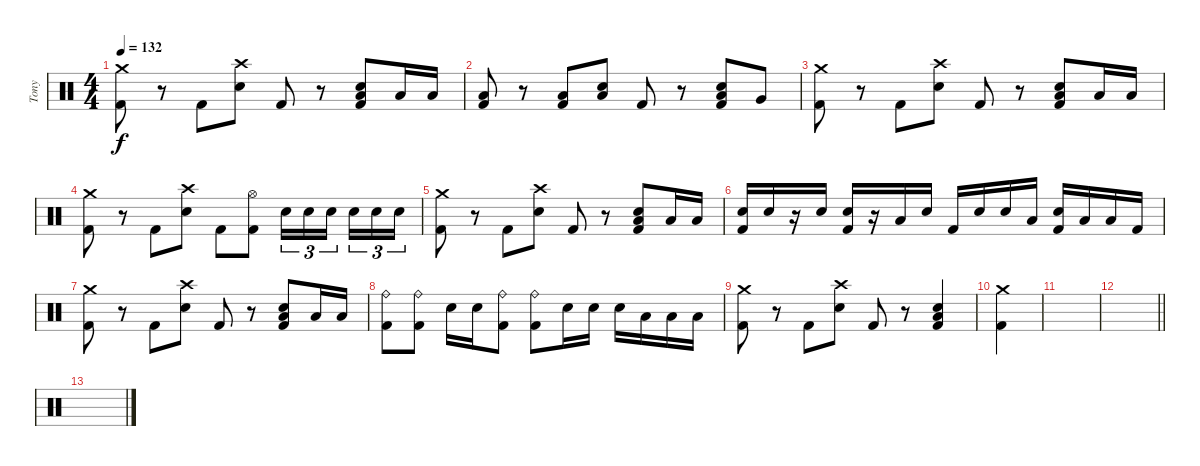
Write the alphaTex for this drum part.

\track ("Tony" "Tony") {instrument percussion}
\staff {score}
\articulation defaults
\ts (4 4)
\tempo 132
\clef neutral
\ks c
("Kick (hit) 2" "Crash medium (hit)").8{dy f} r.8 "Kick (hit) 2".8 ("Electric Snare (hit)" "Crash high (hit)").8 "Kick (hit) 2".8 r.8 ("Kick (hit) 2" "Electric Snare (hit)" "Low Floor Tom (hit)").8 "Low Tom (hit)".16 "Low Tom (hit)".16 |
("Kick (hit) 2" "Low Floor Tom (hit)").8 r.8 ("Kick (hit) 2" "Low Tom (hit)").8 ("Low Floor Tom (hit)" "Electric Snare (hit)").8 "Kick (hit) 2".8 r.8 ("Kick (hit) 2" "Low Floor Tom (hit)" "Electric Snare (hit)").8 "Very Low Tom (hit)".8 |
("Kick (hit) 2" "Crash medium (hit)").8 r.8 "Kick (hit) 2".8 ("Electric Snare (hit)" "Crash high (hit)").8 "Kick (hit) 2".8 r.8 ("Kick (hit) 2" "Electric Snare (hit)" "Low Floor Tom (hit)").8 "Low Tom (hit)".16 "Low Tom (hit)".16 |
("Kick (hit) 2" "Crash medium (hit)").8 r.8 "Kick (hit) 2".8 ("Electric Snare (hit)" "Crash high (hit)").8 "Kick (hit) 2".8 ("Hi-Hat (open)" "Kick (hit) 2").8 "Electric Snare (hit)".16{tu (3 2)} "Electric Snare (hit)".16{tu (3 2)} "Electric Snare (hit)".16{tu (3 2) beam splitsecondary} "Electric Snare (hit)".16{tu (3 2)} "Electric Snare (hit)".16{tu (3 2)} "Electric Snare (hit)".16{tu (3 2)} |
("Kick (hit) 2" "Crash medium (hit)").8 r.8 "Kick (hit) 2".8 ("Electric Snare (hit)" "Crash high (hit)").8 "Kick (hit) 2".8 r.8 ("Kick (hit) 2" "Electric Snare (hit)" "Low Floor Tom (hit)").8 "Low Tom (hit)".16 "Low Tom (hit)".16 |
("Electric Snare (hit)" "Kick (hit) 2").16 "Electric Snare (hit)".16 r.16 "Electric Snare (hit)".16 ("Electric Snare (hit)" "Kick (hit) 2").16 r.16 "Low Tom (hit)".16 "Electric Snare (hit)".16 "Kick (hit) 2".16 "Electric Snare (hit)".16 "Electric Snare (hit)".16 "Low Tom (hit)".16 ("Kick (hit) 2" "Electric Snare (hit)").16 "Low Tom (hit)".16 "Low Floor Tom (hit)".16 "Kick (hit) 2".16 |
("Kick (hit) 2" "Crash medium (hit)").8 r.8 "Kick (hit) 2".8 ("Electric Snare (hit)" "Crash high (hit)").8 "Kick (hit) 2".8 r.8 ("Kick (hit) 2" "Electric Snare (hit)" "Low Floor Tom (hit)").8 "Low Tom (hit)".16 "Low Tom (hit)".16 |
("Ride (bell)" "Kick (hit) 2").8 ("Ride (bell)" "Kick (hit) 2").8 "Electric Snare (hit)".16 "Electric Snare (hit)".16 ("Kick (hit) 2" "Ride (bell)").8 ("Kick (hit) 2" "Ride (bell)").8 "Electric Snare (hit)".16 "Electric Snare (hit)".16 "Electric Snare (hit)".16 "Low Tom (hit)".16 "Low Floor Tom (hit)".16 "Low Floor Tom (hit)".16 |
("Kick (hit) 2" "Crash medium (hit)").8 r.8 "Kick (hit) 2".8 ("Electric Snare (hit)" "Crash high (hit)").8 "Kick (hit) 2".8 r.8 ("Kick (hit) 2" "Electric Snare (hit)" "Low Floor Tom (hit)").4 |
("Kick (hit) 2" "Crash medium (hit)").4 |
|
\barLineRight lightlight
|
\section ("" "")
